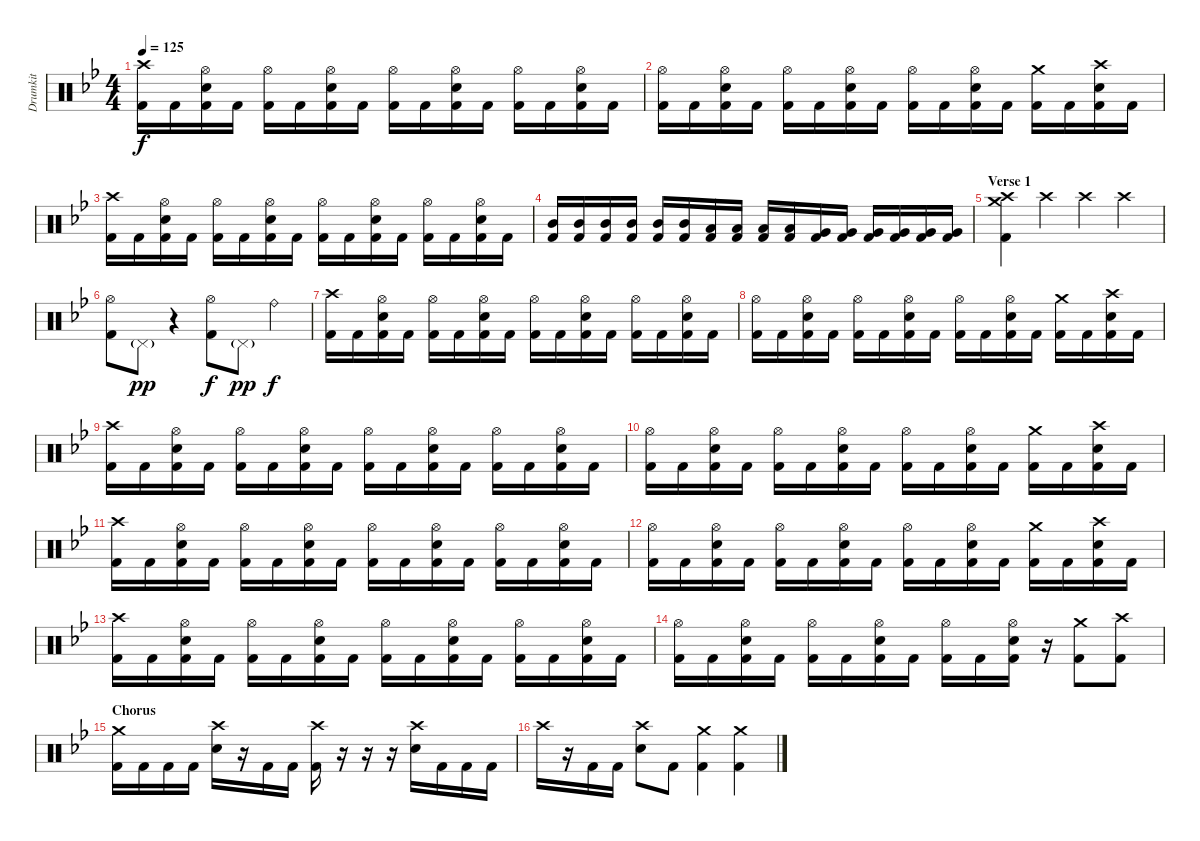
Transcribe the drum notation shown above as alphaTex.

\track ("Drumkit" "Drumkit") {instrument percussion}
\staff {score}
\articulation defaults
\ts (4 4)
\tempo 125
\clef neutral
\ks bb
("Crash high (hit)" "Kick (hit) 2").16{dy f} "Kick (hit) 2".16 ("Hi-Hat (open)" "Snare (hit) 2" "Kick (hit) 2").16 "Kick (hit) 2".16 ("Hi-Hat (open)" "Kick (hit) 2").16 "Kick (hit) 2".16 ("Hi-Hat (open)" "Snare (hit) 2" "Kick (hit) 2").16 "Kick (hit) 2".16 ("Hi-Hat (open)" "Kick (hit) 2").16 "Kick (hit) 2".16 ("Hi-Hat (open)" "Snare (hit) 2" "Kick (hit) 2").16 "Kick (hit) 2".16 ("Hi-Hat (open)" "Kick (hit) 2").16 "Kick (hit) 2".16 ("Hi-Hat (open)" "Snare (hit) 2" "Kick (hit) 2").16 "Kick (hit) 2".16 |
("Hi-Hat (open)" "Kick (hit) 2").16 "Kick (hit) 2".16 ("Hi-Hat (open)" "Snare (hit) 2" "Kick (hit) 2").16 "Kick (hit) 2".16 ("Hi-Hat (open)" "Kick (hit) 2").16 "Kick (hit) 2".16 ("Hi-Hat (open)" "Snare (hit) 2" "Kick (hit) 2").16 "Kick (hit) 2".16 ("Hi-Hat (open)" "Kick (hit) 2").16 "Kick (hit) 2".16 ("Hi-Hat (open)" "Snare (hit) 2" "Kick (hit) 2").16 "Kick (hit) 2".16 ("Crash medium (hit)" "Kick (hit) 2").16 "Kick (hit) 2".16 ("Crash high (hit)" "Snare (hit) 2" "Kick (hit) 2").16 "Kick (hit) 2".16 |
("Crash high (hit)" "Kick (hit) 2").16 "Kick (hit) 2".16 ("Hi-Hat (open)" "Snare (hit) 2" "Kick (hit) 2").16 "Kick (hit) 2".16 ("Hi-Hat (open)" "Kick (hit) 2").16 "Kick (hit) 2".16 ("Hi-Hat (open)" "Snare (hit) 2" "Kick (hit) 2").16 "Kick (hit) 2".16 ("Hi-Hat (open)" "Kick (hit) 2").16 "Kick (hit) 2".16 ("Hi-Hat (open)" "Snare (hit) 2" "Kick (hit) 2").16 "Kick (hit) 2".16 ("Hi-Hat (open)" "Kick (hit) 2").16 "Kick (hit) 2".16 ("Hi-Hat (open)" "Snare (hit) 2" "Kick (hit) 2").16 "Kick (hit) 2".16 |
("Mid Tom (hit)" "Kick (hit) 2").16 ("Mid Tom (hit)" "Kick (hit) 2").16 ("Mid Tom (hit)" "Kick (hit) 2").16 ("Mid Tom (hit)" "Kick (hit) 2").16 ("Mid Tom (hit)" "Kick (hit) 2").16 ("Mid Tom (hit)" "Kick (hit) 2").16 ("Low Tom (hit)" "Kick (hit) 2").16 ("Low Tom (hit)" "Kick (hit) 2").16 ("Low Tom (hit)" "Kick (hit) 2").16 ("Low Tom (hit)" "Kick (hit) 2").16 ("Very Low Tom (hit)" "Kick (hit) 2").16 ("Very Low Tom (hit)" "Kick (hit) 2").16 ("Very Low Tom (hit)" "Kick (hit) 2").16 ("Very Low Tom (hit)" "Kick (hit) 2").16 ("Very Low Tom (hit)" "Kick (hit) 2").16 ("Very Low Tom (hit)" "Kick (hit) 2").16 |
\section ("" "Verse 1")
("Crash high (hit)" "Crash medium (hit)" "Kick (hit) 2").4 "Crash high (hit)".4 "Crash high (hit)".4 "Crash high (hit)".4 |
("Hi-Hat (open)" "Kick (hit) 2").8 "Pedal Hi-Hat (hit)"{g}.8{dy pp} r.4 ("Hi-Hat (open)" "Kick (hit) 2").8{dy f} "Pedal Hi-Hat (hit)"{g}.8{dy pp} "Ride (bell)".4{dy f} |
("Crash high (hit)" "Kick (hit) 2").16 "Kick (hit) 2".16 ("Hi-Hat (open)" "Snare (hit) 2" "Kick (hit) 2").16 "Kick (hit) 2".16 ("Hi-Hat (open)" "Kick (hit) 2").16 "Kick (hit) 2".16 ("Hi-Hat (open)" "Snare (hit) 2" "Kick (hit) 2").16 "Kick (hit) 2".16 ("Hi-Hat (open)" "Kick (hit) 2").16 "Kick (hit) 2".16 ("Hi-Hat (open)" "Snare (hit) 2" "Kick (hit) 2").16 "Kick (hit) 2".16 ("Hi-Hat (open)" "Kick (hit) 2").16 "Kick (hit) 2".16 ("Hi-Hat (open)" "Snare (hit) 2" "Kick (hit) 2").16 "Kick (hit) 2".16 |
("Hi-Hat (open)" "Kick (hit) 2").16 "Kick (hit) 2".16 ("Hi-Hat (open)" "Snare (hit) 2" "Kick (hit) 2").16 "Kick (hit) 2".16 ("Hi-Hat (open)" "Kick (hit) 2").16 "Kick (hit) 2".16 ("Hi-Hat (open)" "Snare (hit) 2" "Kick (hit) 2").16 "Kick (hit) 2".16 ("Hi-Hat (open)" "Kick (hit) 2").16 "Kick (hit) 2".16 ("Hi-Hat (open)" "Snare (hit) 2" "Kick (hit) 2").16 "Kick (hit) 2".16 ("Crash medium (hit)" "Kick (hit) 2").16 "Kick (hit) 2".16 ("Crash high (hit)" "Snare (hit) 2" "Kick (hit) 2").16 "Kick (hit) 2".16 |
("Crash high (hit)" "Kick (hit) 2").16 "Kick (hit) 2".16 ("Hi-Hat (open)" "Snare (hit) 2" "Kick (hit) 2").16 "Kick (hit) 2".16 ("Hi-Hat (open)" "Kick (hit) 2").16 "Kick (hit) 2".16 ("Hi-Hat (open)" "Snare (hit) 2" "Kick (hit) 2").16 "Kick (hit) 2".16 ("Hi-Hat (open)" "Kick (hit) 2").16 "Kick (hit) 2".16 ("Hi-Hat (open)" "Snare (hit) 2" "Kick (hit) 2").16 "Kick (hit) 2".16 ("Hi-Hat (open)" "Kick (hit) 2").16 "Kick (hit) 2".16 ("Hi-Hat (open)" "Snare (hit) 2" "Kick (hit) 2").16 "Kick (hit) 2".16 |
("Hi-Hat (open)" "Kick (hit) 2").16 "Kick (hit) 2".16 ("Hi-Hat (open)" "Snare (hit) 2" "Kick (hit) 2").16 "Kick (hit) 2".16 ("Hi-Hat (open)" "Kick (hit) 2").16 "Kick (hit) 2".16 ("Hi-Hat (open)" "Snare (hit) 2" "Kick (hit) 2").16 "Kick (hit) 2".16 ("Hi-Hat (open)" "Kick (hit) 2").16 "Kick (hit) 2".16 ("Hi-Hat (open)" "Snare (hit) 2" "Kick (hit) 2").16 "Kick (hit) 2".16 ("Crash medium (hit)" "Kick (hit) 2").16 "Kick (hit) 2".16 ("Crash high (hit)" "Snare (hit) 2" "Kick (hit) 2").16 "Kick (hit) 2".16 |
("Crash high (hit)" "Kick (hit) 2").16 "Kick (hit) 2".16 ("Hi-Hat (open)" "Snare (hit) 2" "Kick (hit) 2").16 "Kick (hit) 2".16 ("Hi-Hat (open)" "Kick (hit) 2").16 "Kick (hit) 2".16 ("Hi-Hat (open)" "Snare (hit) 2" "Kick (hit) 2").16 "Kick (hit) 2".16 ("Hi-Hat (open)" "Kick (hit) 2").16 "Kick (hit) 2".16 ("Hi-Hat (open)" "Snare (hit) 2" "Kick (hit) 2").16 "Kick (hit) 2".16 ("Hi-Hat (open)" "Kick (hit) 2").16 "Kick (hit) 2".16 ("Hi-Hat (open)" "Snare (hit) 2" "Kick (hit) 2").16 "Kick (hit) 2".16 |
("Hi-Hat (open)" "Kick (hit) 2").16 "Kick (hit) 2".16 ("Hi-Hat (open)" "Snare (hit) 2" "Kick (hit) 2").16 "Kick (hit) 2".16 ("Hi-Hat (open)" "Kick (hit) 2").16 "Kick (hit) 2".16 ("Hi-Hat (open)" "Snare (hit) 2" "Kick (hit) 2").16 "Kick (hit) 2".16 ("Hi-Hat (open)" "Kick (hit) 2").16 "Kick (hit) 2".16 ("Hi-Hat (open)" "Snare (hit) 2" "Kick (hit) 2").16 "Kick (hit) 2".16 ("Crash medium (hit)" "Kick (hit) 2").16 "Kick (hit) 2".16 ("Crash high (hit)" "Snare (hit) 2" "Kick (hit) 2").16 "Kick (hit) 2".16 |
("Crash high (hit)" "Kick (hit) 2").16 "Kick (hit) 2".16 ("Hi-Hat (open)" "Snare (hit) 2" "Kick (hit) 2").16 "Kick (hit) 2".16 ("Hi-Hat (open)" "Kick (hit) 2").16 "Kick (hit) 2".16 ("Hi-Hat (open)" "Snare (hit) 2" "Kick (hit) 2").16 "Kick (hit) 2".16 ("Hi-Hat (open)" "Kick (hit) 2").16 "Kick (hit) 2".16 ("Hi-Hat (open)" "Snare (hit) 2" "Kick (hit) 2").16 "Kick (hit) 2".16 ("Hi-Hat (open)" "Kick (hit) 2").16 "Kick (hit) 2".16 ("Hi-Hat (open)" "Snare (hit) 2" "Kick (hit) 2").16 "Kick (hit) 2".16 |
("Hi-Hat (open)" "Kick (hit) 2").16 "Kick (hit) 2".16 ("Hi-Hat (open)" "Snare (hit) 2" "Kick (hit) 2").16 "Kick (hit) 2".16 ("Hi-Hat (open)" "Kick (hit) 2").16 "Kick (hit) 2".16 ("Hi-Hat (open)" "Snare (hit) 2" "Kick (hit) 2").16 "Kick (hit) 2".16 ("Hi-Hat (open)" "Kick (hit) 2").16 "Kick (hit) 2".16 ("Hi-Hat (open)" "Snare (hit) 2" "Kick (hit) 2").16 r.16 ("Crash medium (hit)" "Kick (hit) 2").8 ("Crash high (hit)" "Kick (hit) 2").8 |
\section ("" "Chorus")
("Crash medium (hit)" "Kick (hit) 2").16 "Kick (hit) 2".16 "Kick (hit) 2".16 "Kick (hit) 2".16 ("Crash high (hit)" "Snare (hit) 2").16 r.16 "Kick (hit) 2".16 "Kick (hit) 2".16 ("Crash high (hit)" "Kick (hit) 2").16 r.16 r.16 r.16 ("Crash high (hit)" "Snare (hit) 2").16 "Kick (hit) 2".16 "Kick (hit) 2".16 "Kick (hit) 2".16 |
"Crash high (hit)".16 r.16 "Kick (hit) 2".16 "Kick (hit) 2".16 ("Crash high (hit)" "Snare (hit) 2").8 "Kick (hit) 2".8 ("Crash medium (hit)" "Kick (hit) 2").4 ("Crash medium (hit)" "Kick (hit) 2").4
